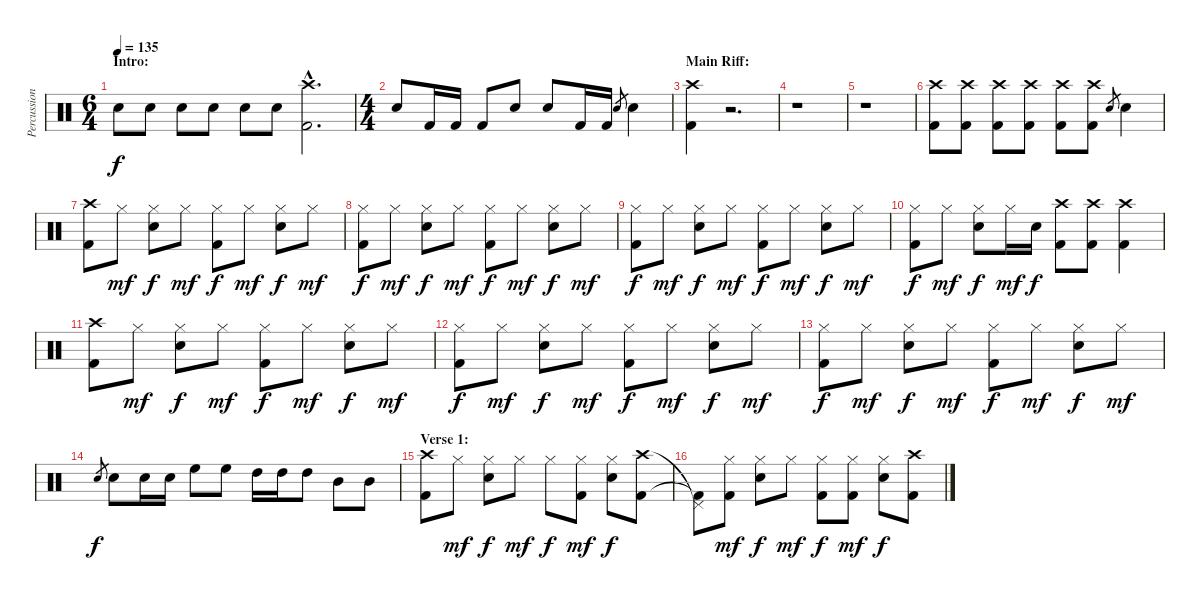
\track ("Percussion" "Percussion") {instrument percussion}
\staff {score}
\articulation defaults
\ts (6 4)
\section ("" "Intro:")
\tempo 135
\clef neutral
\ks c "Snare (hit) 2".8{dy f} "Snare (hit) 2".8 "Snare (hit) 2".8 "Snare (hit) 2".8 "Snare (hit) 2".8 "Snare (hit) 2".8
("Crash high (hit)"{hac} "Kick (hit) 2"{hac}).2{d} |
\ts (4 4)
"Snare (hit) 2".8 "Kick (hit) 2".16 "Kick (hit) 2".16 "Kick (hit) 2".8 "Snare (hit) 2".8 "Snare (hit) 2".8 "Kick (hit) 2".16 "Kick (hit) 2".16 "Snare (hit) 2".8{gr} "Snare (hit) 2".4 |
\section ("" "Main Riff:")
("Crash high (hit)" "Kick (hit) 2").4 r.2{d} |
r.1 |
r.1 |
("Crash high (hit)" "Kick (hit) 2").8 ("Crash high (hit)" "Kick (hit) 2").8 ("Crash high (hit)" "Kick (hit) 2").8 ("Crash high (hit)" "Kick (hit) 2").8 ("Crash high (hit)" "Kick (hit) 2").8 ("Crash high (hit)" "Kick (hit) 2").8 "Snare (hit) 2".8{gr} "Snare (hit) 2".4 |
("Crash high (hit)" "Kick (hit) 2").8 "Hi-Hat (closed)".8{dy mf} ("Hi-Hat (closed)" "Snare (hit) 2").8{dy f} "Hi-Hat (closed)".8{dy mf} ("Hi-Hat (closed)" "Kick (hit) 2").8{dy f} "Hi-Hat (closed)".8{dy mf} ("Hi-Hat (closed)" "Snare (hit) 2").8{dy f} "Hi-Hat (closed)".8{dy mf} |
("Hi-Hat (closed)" "Kick (hit) 2").8{dy f} "Hi-Hat (closed)".8{dy mf} ("Hi-Hat (closed)" "Snare (hit) 2").8{dy f} "Hi-Hat (closed)".8{dy mf} ("Hi-Hat (closed)" "Kick (hit) 2").8{dy f} "Hi-Hat (closed)".8{dy mf} ("Hi-Hat (closed)" "Snare (hit) 2").8{dy f} "Hi-Hat (closed)".8{dy mf} |
("Hi-Hat (closed)" "Kick (hit) 2").8{dy f} "Hi-Hat (closed)".8{dy mf} ("Hi-Hat (closed)" "Snare (hit) 2").8{dy f} "Hi-Hat (closed)".8{dy mf} ("Hi-Hat (closed)" "Kick (hit) 2").8{dy f} "Hi-Hat (closed)".8{dy mf} ("Hi-Hat (closed)" "Snare (hit) 2").8{dy f} "Hi-Hat (closed)".8{dy mf} |
("Hi-Hat (closed)" "Kick (hit) 2").8{dy f} "Hi-Hat (closed)".8{dy mf} ("Hi-Hat (closed)" "Snare (hit) 2").8{dy f} "Hi-Hat (closed)".16{dy mf} "Snare (hit) 2".16{dy f} ("Crash high (hit)" "Kick (hit) 2").8 ("Crash high (hit)" "Kick (hit) 2").8 ("Crash high (hit)" "Kick (hit) 2").4 |
("Crash high (hit)" "Kick (hit) 2").8 "Hi-Hat (closed)".8{dy mf} ("Hi-Hat (closed)" "Snare (hit) 2").8{dy f} "Hi-Hat (closed)".8{dy mf} ("Hi-Hat (closed)" "Kick (hit) 2").8{dy f} "Hi-Hat (closed)".8{dy mf} ("Hi-Hat (closed)" "Snare (hit) 2").8{dy f} "Hi-Hat (closed)".8{dy mf} |
("Hi-Hat (closed)" "Kick (hit) 2").8{dy f} "Hi-Hat (closed)".8{dy mf} ("Hi-Hat (closed)" "Snare (hit) 2").8{dy f} "Hi-Hat (closed)".8{dy mf} ("Hi-Hat (closed)" "Kick (hit) 2").8{dy f} "Hi-Hat (closed)".8{dy mf} ("Hi-Hat (closed)" "Snare (hit) 2").8{dy f} "Hi-Hat (closed)".8{dy mf} |
("Hi-Hat (closed)" "Kick (hit) 2").8{dy f} "Hi-Hat (closed)".8{dy mf} ("Hi-Hat (closed)" "Snare (hit) 2").8{dy f} "Hi-Hat (closed)".8{dy mf} ("Hi-Hat (closed)" "Kick (hit) 2").8{dy f} "Hi-Hat (closed)".8{dy mf} ("Hi-Hat (closed)" "Snare (hit) 2").8{dy f} "Hi-Hat (closed)".8{dy mf} |
"Snare (hit) 2".8{gr dy f} "Snare (hit) 2".8 "Snare (hit) 2".16 "Snare (hit) 2".16 "High Floor Tom (hit)".8 "High Floor Tom (hit)".8 "High Tom (hit)".16 "High Tom (hit)".16 "High Tom (hit)".8 "Mid Tom (hit)".8 "Mid Tom (hit)".8 |
\section ("" "Verse 1:")
("Crash high (hit)" "Kick (hit) 2").8 "Hi-Hat (closed)".8{dy mf} ("Hi-Hat (closed)" "Snare (hit) 2").8{dy f} "Hi-Hat (closed)".8{dy mf} "Hi-Hat (closed)".8{dy f} ("Hi-Hat (closed)" "Kick (hit) 2").8{dy mf} ("Hi-Hat (closed)" "Snare (hit) 2").8{dy f} ("Crash high (hit)" "Kick (hit) 2").8 |
("Pedal Hi-Hat (hit)"{t} "Kick (hit) 2"{t}).8 ("Hi-Hat (closed)" "Kick (hit) 2").8{dy mf} ("Hi-Hat (closed)" "Snare (hit) 2").8{dy f} "Hi-Hat (closed)".8{dy mf} ("Hi-Hat (closed)" "Kick (hit) 2").8{dy f} ("Hi-Hat (closed)" "Kick (hit) 2").8{dy mf} ("Hi-Hat (closed)" "Snare (hit) 2").8{dy f} ("Crash high (hit)" "Kick (hit) 2").8
